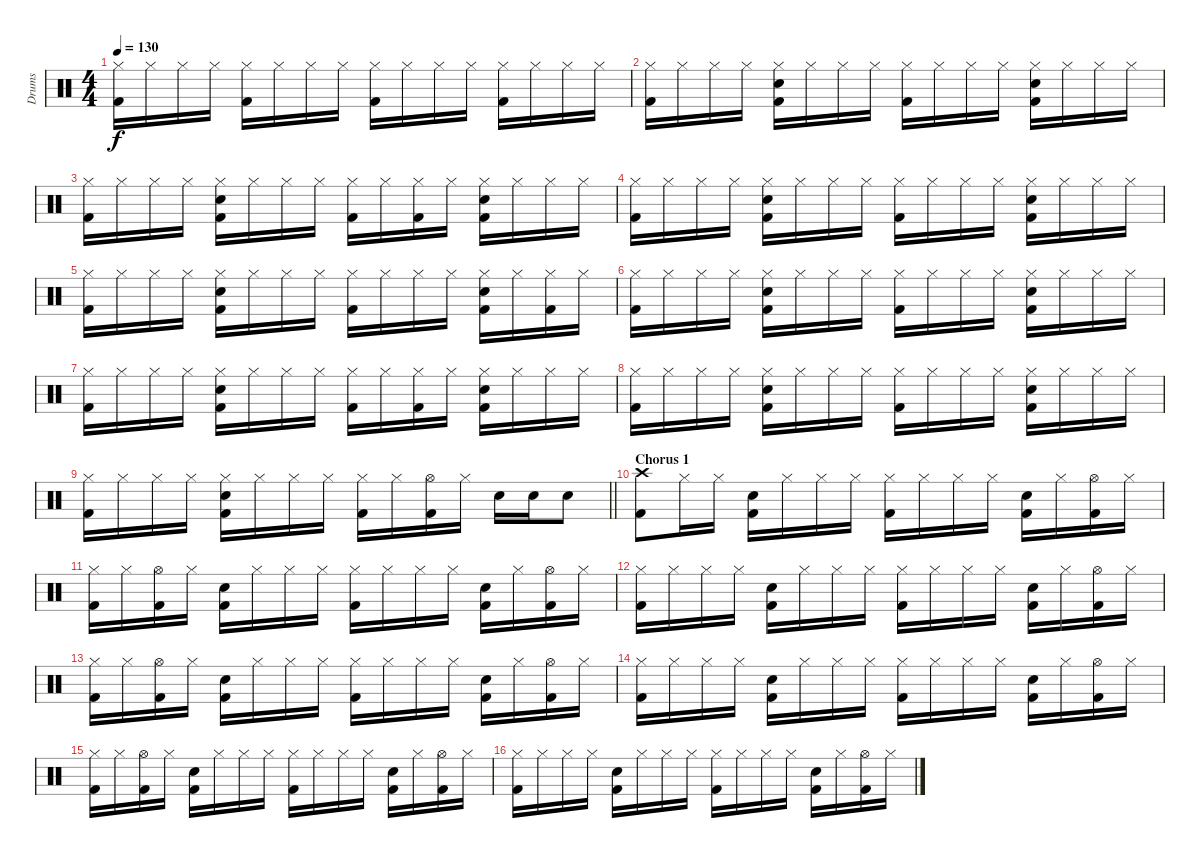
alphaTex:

\track ("Drums" "Drums") {instrument percussion}
\staff {score}
\articulation defaults
\ts (4 4)
\tempo 130
\clef neutral
\ks c
("Hi-Hat (closed)" "Kick (hit) 2").16{dy f} "Hi-Hat (closed)".16 "Hi-Hat (closed)".16 "Hi-Hat (closed)".16 ("Hi-Hat (closed)" "Kick (hit) 2").16 "Hi-Hat (closed)".16 "Hi-Hat (closed)".16 "Hi-Hat (closed)".16 ("Hi-Hat (closed)" "Kick (hit) 2").16 "Hi-Hat (closed)".16 "Hi-Hat (closed)".16 "Hi-Hat (closed)".16 ("Hi-Hat (closed)" "Kick (hit) 2").16 "Hi-Hat (closed)".16 "Hi-Hat (closed)".16 "Hi-Hat (closed)".16 |
("Hi-Hat (closed)" "Kick (hit) 2").16 "Hi-Hat (closed)".16 "Hi-Hat (closed)".16 "Hi-Hat (closed)".16 ("Hi-Hat (closed)" "Electric Snare (hit)" "Kick (hit) 2").16 "Hi-Hat (closed)".16 "Hi-Hat (closed)".16 "Hi-Hat (closed)".16 ("Hi-Hat (closed)" "Kick (hit) 2").16 "Hi-Hat (closed)".16 "Hi-Hat (closed)".16 "Hi-Hat (closed)".16 ("Hi-Hat (closed)" "Electric Snare (hit)" "Kick (hit) 2").16 "Hi-Hat (closed)".16 "Hi-Hat (closed)".16 "Hi-Hat (closed)".16 |
("Hi-Hat (closed)" "Kick (hit) 2").16 "Hi-Hat (closed)".16 "Hi-Hat (closed)".16 "Hi-Hat (closed)".16 ("Hi-Hat (closed)" "Electric Snare (hit)" "Kick (hit) 2").16 "Hi-Hat (closed)".16 "Hi-Hat (closed)".16 "Hi-Hat (closed)".16 ("Hi-Hat (closed)" "Kick (hit) 2").16 "Hi-Hat (closed)".16 ("Hi-Hat (closed)" "Kick (hit) 2").16 "Hi-Hat (closed)".16 ("Hi-Hat (closed)" "Electric Snare (hit)" "Kick (hit) 2").16 "Hi-Hat (closed)".16 "Hi-Hat (closed)".16 "Hi-Hat (closed)".16 |
("Hi-Hat (closed)" "Kick (hit) 2").16 "Hi-Hat (closed)".16 "Hi-Hat (closed)".16 "Hi-Hat (closed)".16 ("Hi-Hat (closed)" "Electric Snare (hit)" "Kick (hit) 2").16 "Hi-Hat (closed)".16 "Hi-Hat (closed)".16 "Hi-Hat (closed)".16 ("Hi-Hat (closed)" "Kick (hit) 2").16 "Hi-Hat (closed)".16 "Hi-Hat (closed)".16 "Hi-Hat (closed)".16 ("Hi-Hat (closed)" "Electric Snare (hit)" "Kick (hit) 2").16 "Hi-Hat (closed)".16 "Hi-Hat (closed)".16 "Hi-Hat (closed)".16 |
("Hi-Hat (closed)" "Kick (hit) 2").16 "Hi-Hat (closed)".16 "Hi-Hat (closed)".16 "Hi-Hat (closed)".16 ("Hi-Hat (closed)" "Electric Snare (hit)" "Kick (hit) 2").16 "Hi-Hat (closed)".16 "Hi-Hat (closed)".16 "Hi-Hat (closed)".16 ("Hi-Hat (closed)" "Kick (hit) 2").16 "Hi-Hat (closed)".16 "Hi-Hat (closed)".16 "Hi-Hat (closed)".16 ("Hi-Hat (closed)" "Electric Snare (hit)" "Kick (hit) 2").16 "Hi-Hat (closed)".16 ("Hi-Hat (closed)" "Kick (hit) 2").16 "Hi-Hat (closed)".16 |
("Hi-Hat (closed)" "Kick (hit) 2").16 "Hi-Hat (closed)".16 "Hi-Hat (closed)".16 "Hi-Hat (closed)".16 ("Hi-Hat (closed)" "Electric Snare (hit)" "Kick (hit) 2").16 "Hi-Hat (closed)".16 "Hi-Hat (closed)".16 "Hi-Hat (closed)".16 ("Hi-Hat (closed)" "Kick (hit) 2").16 "Hi-Hat (closed)".16 "Hi-Hat (closed)".16 "Hi-Hat (closed)".16 ("Hi-Hat (closed)" "Electric Snare (hit)" "Kick (hit) 2").16 "Hi-Hat (closed)".16 "Hi-Hat (closed)".16 "Hi-Hat (closed)".16 |
("Hi-Hat (closed)" "Kick (hit) 2").16 "Hi-Hat (closed)".16 "Hi-Hat (closed)".16 "Hi-Hat (closed)".16 ("Hi-Hat (closed)" "Electric Snare (hit)" "Kick (hit) 2").16 "Hi-Hat (closed)".16 "Hi-Hat (closed)".16 "Hi-Hat (closed)".16 ("Hi-Hat (closed)" "Kick (hit) 2").16 "Hi-Hat (closed)".16 ("Hi-Hat (closed)" "Kick (hit) 2").16 "Hi-Hat (closed)".16 ("Hi-Hat (closed)" "Electric Snare (hit)" "Kick (hit) 2").16 "Hi-Hat (closed)".16 "Hi-Hat (closed)".16 "Hi-Hat (closed)".16 |
("Hi-Hat (closed)" "Kick (hit) 2").16 "Hi-Hat (closed)".16 "Hi-Hat (closed)".16 "Hi-Hat (closed)".16 ("Hi-Hat (closed)" "Electric Snare (hit)" "Kick (hit) 2").16 "Hi-Hat (closed)".16 "Hi-Hat (closed)".16 "Hi-Hat (closed)".16 ("Hi-Hat (closed)" "Kick (hit) 2").16 "Hi-Hat (closed)".16 "Hi-Hat (closed)".16 "Hi-Hat (closed)".16 ("Hi-Hat (closed)" "Electric Snare (hit)" "Kick (hit) 2").16 "Hi-Hat (closed)".16 "Hi-Hat (closed)".16 "Hi-Hat (closed)".16 |
\barLineRight lightlight
("Hi-Hat (closed)" "Kick (hit) 2").16 "Hi-Hat (closed)".16 "Hi-Hat (closed)".16 "Hi-Hat (closed)".16 ("Hi-Hat (closed)" "Electric Snare (hit)" "Kick (hit) 2").16 "Hi-Hat (closed)".16 "Hi-Hat (closed)".16 "Hi-Hat (closed)".16 ("Hi-Hat (closed)" "Kick (hit) 2").16 "Hi-Hat (closed)".16 ("Hi-Hat (open)" "Kick (hit) 2").16 "Hi-Hat (closed)".16 "Electric Snare (hit)".16 "Electric Snare (hit)".16 "Electric Snare (hit)".8 |
\section ("" "Chorus 1")
("Crash high (hit)" "Kick (hit) 2").8 "Hi-Hat (closed)".16 "Hi-Hat (closed)".16 ("Electric Snare (hit)" "Kick (hit) 2").16 "Hi-Hat (closed)".16 "Hi-Hat (closed)".16 "Hi-Hat (closed)".16 ("Hi-Hat (closed)" "Kick (hit) 2").16 "Hi-Hat (closed)".16 "Hi-Hat (closed)".16 "Hi-Hat (closed)".16 ("Electric Snare (hit)" "Kick (hit) 2").16 "Hi-Hat (closed)".16 ("Hi-Hat (open)" "Kick (hit) 2").16 "Hi-Hat (closed)".16 |
("Hi-Hat (closed)" "Kick (hit) 2").16 "Hi-Hat (closed)".16 ("Hi-Hat (open)" "Kick (hit) 2").16 "Hi-Hat (closed)".16 ("Electric Snare (hit)" "Kick (hit) 2").16 "Hi-Hat (closed)".16 "Hi-Hat (closed)".16 "Hi-Hat (closed)".16 ("Hi-Hat (closed)" "Kick (hit) 2").16 "Hi-Hat (closed)".16 "Hi-Hat (closed)".16 "Hi-Hat (closed)".16 ("Electric Snare (hit)" "Kick (hit) 2").16 "Hi-Hat (closed)".16 ("Hi-Hat (open)" "Kick (hit) 2").16 "Hi-Hat (closed)".16 |
("Hi-Hat (closed)" "Kick (hit) 2").16 "Hi-Hat (closed)".16 "Hi-Hat (closed)".16 "Hi-Hat (closed)".16 ("Electric Snare (hit)" "Kick (hit) 2").16 "Hi-Hat (closed)".16 "Hi-Hat (closed)".16 "Hi-Hat (closed)".16 ("Hi-Hat (closed)" "Kick (hit) 2").16 "Hi-Hat (closed)".16 "Hi-Hat (closed)".16 "Hi-Hat (closed)".16 ("Electric Snare (hit)" "Kick (hit) 2").16 "Hi-Hat (closed)".16 ("Hi-Hat (open)" "Kick (hit) 2").16 "Hi-Hat (closed)".16 |
("Hi-Hat (closed)" "Kick (hit) 2").16 "Hi-Hat (closed)".16 ("Hi-Hat (open)" "Kick (hit) 2").16 "Hi-Hat (closed)".16 ("Electric Snare (hit)" "Kick (hit) 2").16 "Hi-Hat (closed)".16 "Hi-Hat (closed)".16 "Hi-Hat (closed)".16 ("Hi-Hat (closed)" "Kick (hit) 2").16 "Hi-Hat (closed)".16 "Hi-Hat (closed)".16 "Hi-Hat (closed)".16 ("Electric Snare (hit)" "Kick (hit) 2").16 "Hi-Hat (closed)".16 ("Hi-Hat (open)" "Kick (hit) 2").16 "Hi-Hat (closed)".16 |
("Hi-Hat (closed)" "Kick (hit) 2").16 "Hi-Hat (closed)".16 "Hi-Hat (closed)".16 "Hi-Hat (closed)".16 ("Electric Snare (hit)" "Kick (hit) 2").16 "Hi-Hat (closed)".16 "Hi-Hat (closed)".16 "Hi-Hat (closed)".16 ("Hi-Hat (closed)" "Kick (hit) 2").16 "Hi-Hat (closed)".16 "Hi-Hat (closed)".16 "Hi-Hat (closed)".16 ("Electric Snare (hit)" "Kick (hit) 2").16 "Hi-Hat (closed)".16 ("Hi-Hat (open)" "Kick (hit) 2").16 "Hi-Hat (closed)".16 |
("Hi-Hat (closed)" "Kick (hit) 2").16 "Hi-Hat (closed)".16 ("Hi-Hat (open)" "Kick (hit) 2").16 "Hi-Hat (closed)".16 ("Electric Snare (hit)" "Kick (hit) 2").16 "Hi-Hat (closed)".16 "Hi-Hat (closed)".16 "Hi-Hat (closed)".16 ("Hi-Hat (closed)" "Kick (hit) 2").16 "Hi-Hat (closed)".16 "Hi-Hat (closed)".16 "Hi-Hat (closed)".16 ("Electric Snare (hit)" "Kick (hit) 2").16 "Hi-Hat (closed)".16 ("Hi-Hat (open)" "Kick (hit) 2").16 "Hi-Hat (closed)".16 |
("Hi-Hat (closed)" "Kick (hit) 2").16 "Hi-Hat (closed)".16 "Hi-Hat (closed)".16 "Hi-Hat (closed)".16 ("Electric Snare (hit)" "Kick (hit) 2").16 "Hi-Hat (closed)".16 "Hi-Hat (closed)".16 "Hi-Hat (closed)".16 ("Hi-Hat (closed)" "Kick (hit) 2").16 "Hi-Hat (closed)".16 "Hi-Hat (closed)".16 "Hi-Hat (closed)".16 ("Electric Snare (hit)" "Kick (hit) 2").16 "Hi-Hat (closed)".16 ("Hi-Hat (open)" "Kick (hit) 2").16 "Hi-Hat (closed)".16
